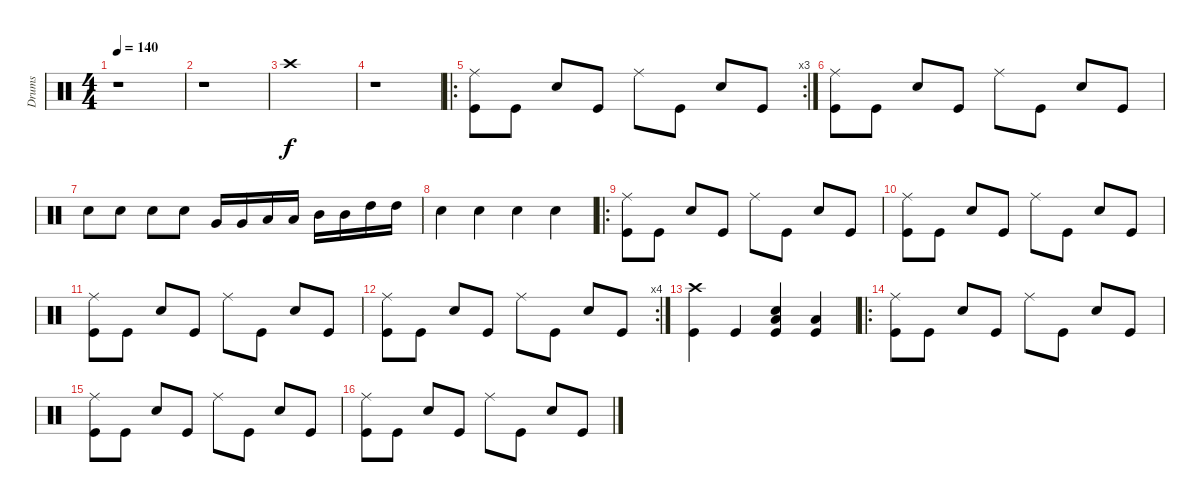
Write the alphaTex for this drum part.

\track ("Drums" "Drums") {instrument percussion}
\staff {score}
\articulation defaults
\ts (4 4)
\tempo 140
\clef neutral
\ks c
r.1{dy f} |
r.1 |
"Crash high (hit)".1 |
r.1 |
\ro
\rc 3
("Ride (middle)" "Kick (hit)").8 "Kick (hit)".8 "Snare (hit) 2".8 "Kick (hit)".8 "Ride (middle)".8 "Kick (hit)".8 "Snare (hit) 2".8 "Kick (hit)".8 |
("Ride (middle)" "Kick (hit)").8 "Kick (hit)".8 "Snare (hit) 2".8 "Kick (hit)".8 "Ride (middle)".8 "Kick (hit)".8 "Snare (hit) 2".8 "Kick (hit)".8 |
"Snare (hit) 2".8 "Snare (hit) 2".8 "Snare (hit) 2".8 "Snare (hit) 2".8 "Very Low Tom (hit)".16 "Very Low Tom (hit)".16 "Low Tom (hit)".16 "Low Tom (hit)".16 "Mid Tom (hit)".16 "Mid Tom (hit)".16 "High Tom (hit)".16 "High Tom (hit)".16 |
"Snare (hit) 2".4 "Snare (hit) 2".4 "Snare (hit) 2".4 "Snare (hit) 2".4 |
\ro
("Ride (middle)" "Kick (hit)").8 "Kick (hit)".8 "Snare (hit) 2".8 "Kick (hit)".8 "Ride (middle)".8 "Kick (hit)".8 "Snare (hit) 2".8 "Kick (hit)".8 |
("Ride (middle)" "Kick (hit)").8 "Kick (hit)".8 "Snare (hit) 2".8 "Kick (hit)".8 "Ride (middle)".8 "Kick (hit)".8 "Snare (hit) 2".8 "Kick (hit)".8 |
("Ride (middle)" "Kick (hit)").8 "Kick (hit)".8 "Snare (hit) 2".8 "Kick (hit)".8 "Ride (middle)".8 "Kick (hit)".8 "Snare (hit) 2".8 "Kick (hit)".8 |
\rc 4
("Ride (middle)" "Kick (hit)").8 "Kick (hit)".8 "Snare (hit) 2".8 "Kick (hit)".8 "Ride (middle)".8 "Kick (hit)".8 "Snare (hit) 2".8 "Kick (hit)".8 |
("Crash high (hit)" "Kick (hit)").4 "Kick (hit)".4 ("Snare (hit) 2" "Low Floor Tom (hit)" "Kick (hit)").4 ("Low Floor Tom (hit)" "Kick (hit)").4 |
\ro
("Ride (middle)" "Kick (hit)").8 "Kick (hit)".8 "Snare (hit) 2".8 "Kick (hit)".8 "Ride (middle)".8 "Kick (hit)".8 "Snare (hit) 2".8 "Kick (hit)".8 |
("Ride (middle)" "Kick (hit)").8 "Kick (hit)".8 "Snare (hit) 2".8 "Kick (hit)".8 "Ride (middle)".8 "Kick (hit)".8 "Snare (hit) 2".8 "Kick (hit)".8 |
("Ride (middle)" "Kick (hit)").8 "Kick (hit)".8 "Snare (hit) 2".8 "Kick (hit)".8 "Ride (middle)".8 "Kick (hit)".8 "Snare (hit) 2".8 "Kick (hit)".8
